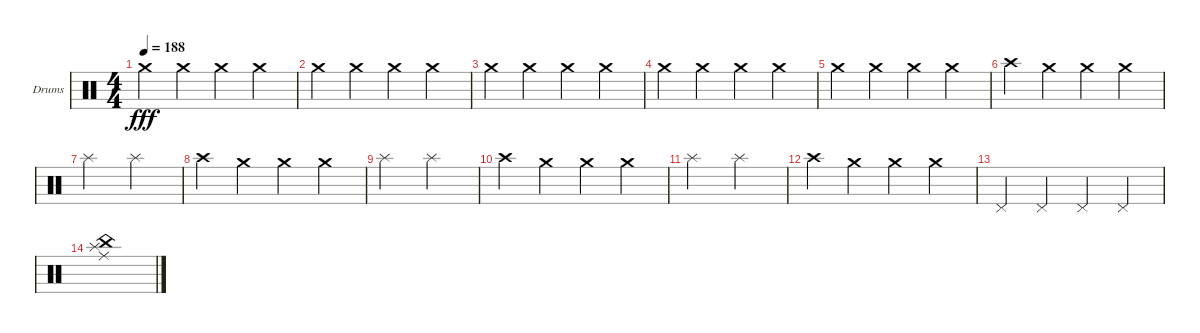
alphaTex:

\defaultSystemsLayout 4
\bracketExtendMode groupsimilarinstruments
\firstSystemTrackNameOrientation horizontal
\otherSystemsTrackNameOrientation horizontal
\track ("Пашок" "Drums") {instrument percussion}
\staff {score}
\articulation defaults
\ts (4 4)
\tempo 188
\clef neutral
\ks c "Crash medium (hit)".4{dy fff} "Crash medium (hit)".4 "Crash medium (hit)".4 "Crash medium (hit)".4
|
"Crash medium (hit)".4 "Crash medium (hit)".4 "Crash medium (hit)".4 "Crash medium (hit)".4 |
"Crash medium (hit)".4 "Crash medium (hit)".4 "Crash medium (hit)".4 "Crash medium (hit)".4 |
"Crash medium (hit)".4 "Crash medium (hit)".4 "Crash medium (hit)".4 "Crash medium (hit)".4 |
"Crash medium (hit)".4 "Crash medium (hit)".4 "Crash medium (hit)".4 "Crash medium (hit)".4 |
"Crash high (hit)".4 "Crash medium (hit)".4 "Crash medium (hit)".4 "Crash medium (hit)".4 |
"Splash (hit)".2 "Splash (hit)".2 |
"Crash high (hit)".4 "Crash medium (hit)".4 "Crash medium (hit)".4 "Crash medium (hit)".4 |
"Splash (hit)".2 "Splash (hit)".2 |
"Crash high (hit)".4 "Crash medium (hit)".4 "Crash medium (hit)".4 "Crash medium (hit)".4 |
"Splash (hit)".2 "Splash (hit)".2 |
"Crash high (hit)".4 "Crash medium (hit)".4 "Crash medium (hit)".4 "Crash medium (hit)".4 |
"Pedal Hi-Hat (hit)".4 "Pedal Hi-Hat (hit)".4 "Pedal Hi-Hat (hit)".4 "Pedal Hi-Hat (hit)".4 |
("Splash (hit)" "China (hit)" "Ride (middle)").1
